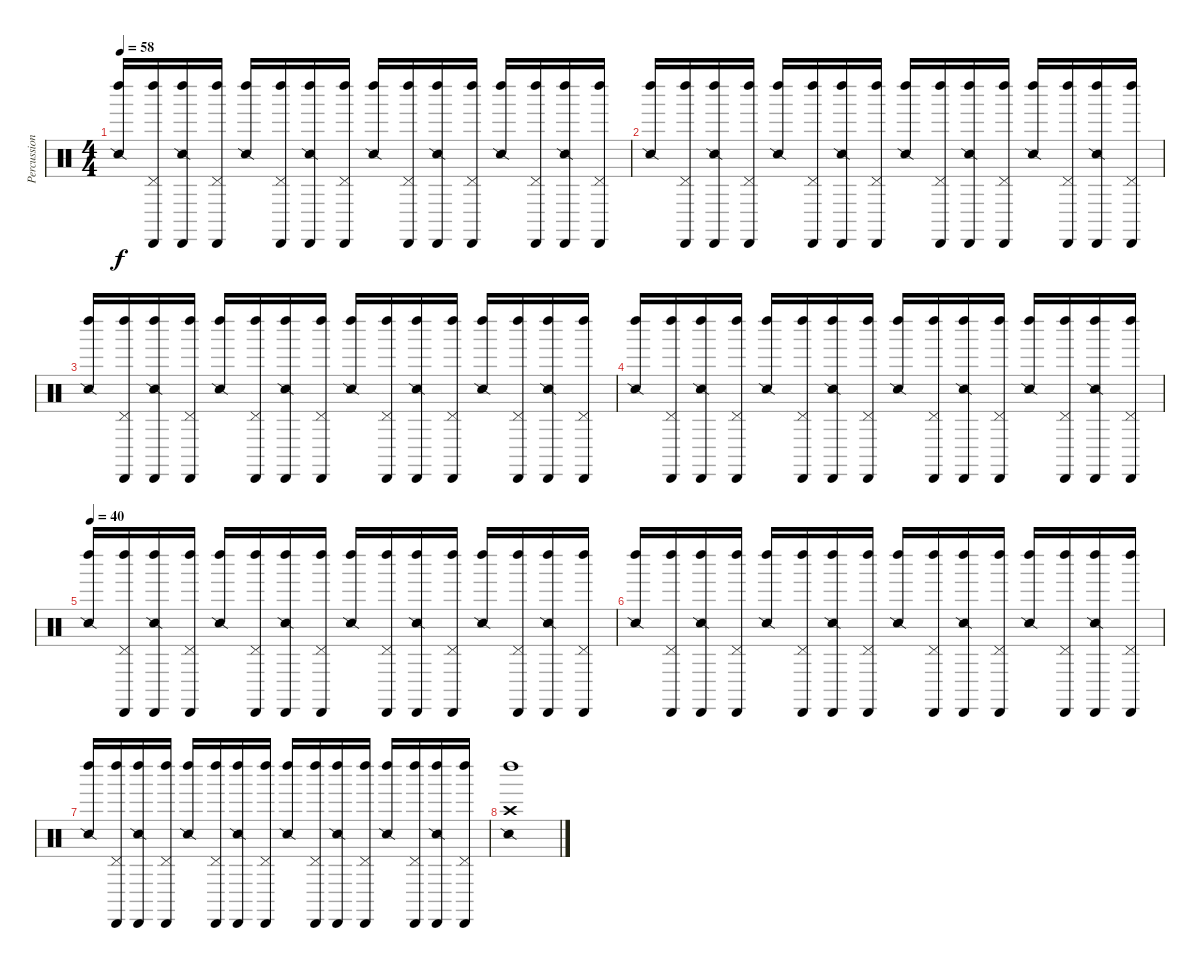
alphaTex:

\track ("Percussions" "Percussion") {instrument percussion}
\staff {score}
\articulation defaults
\ts (4 4)
\tempo 58
\clef neutral
\ks c
("Snare (side stick) 2" "Left Maraca (hit)").16{dy f} ("Cabasa (hit)" "Pedal Hi-Hat (hit)" "Left Maraca (hit)").16 ("Cabasa (hit)" "Snare (side stick) 2" "Left Maraca (hit)").16 ("Cabasa (hit)" "Pedal Hi-Hat (hit)" "Left Maraca (hit)").16 ("Snare (side stick) 2" "Left Maraca (hit)").16 ("Cabasa (hit)" "Pedal Hi-Hat (hit)" "Left Maraca (hit)").16 ("Cabasa (hit)" "Snare (side stick) 2" "Left Maraca (hit)").16 ("Cabasa (hit)" "Pedal Hi-Hat (hit)" "Left Maraca (hit)").16 ("Snare (side stick) 2" "Left Maraca (hit)").16 ("Cabasa (hit)" "Pedal Hi-Hat (hit)" "Left Maraca (hit)").16 ("Cabasa (hit)" "Snare (side stick) 2" "Left Maraca (hit)").16 ("Cabasa (hit)" "Pedal Hi-Hat (hit)" "Left Maraca (hit)").16 ("Snare (side stick) 2" "Left Maraca (hit)").16 ("Cabasa (hit)" "Pedal Hi-Hat (hit)" "Left Maraca (hit)").16 ("Cabasa (hit)" "Snare (side stick) 2" "Left Maraca (hit)").16 ("Cabasa (hit)" "Pedal Hi-Hat (hit)" "Left Maraca (hit)").16 |
("Snare (side stick) 2" "Left Maraca (hit)").16 ("Cabasa (hit)" "Pedal Hi-Hat (hit)" "Left Maraca (hit)").16 ("Cabasa (hit)" "Snare (side stick) 2" "Left Maraca (hit)").16 ("Cabasa (hit)" "Pedal Hi-Hat (hit)" "Left Maraca (hit)").16 ("Snare (side stick) 2" "Left Maraca (hit)").16 ("Cabasa (hit)" "Pedal Hi-Hat (hit)" "Left Maraca (hit)").16 ("Cabasa (hit)" "Snare (side stick) 2" "Left Maraca (hit)").16 ("Cabasa (hit)" "Pedal Hi-Hat (hit)" "Left Maraca (hit)").16 ("Snare (side stick) 2" "Left Maraca (hit)").16 ("Cabasa (hit)" "Pedal Hi-Hat (hit)" "Left Maraca (hit)").16 ("Cabasa (hit)" "Snare (side stick) 2" "Left Maraca (hit)").16 ("Cabasa (hit)" "Pedal Hi-Hat (hit)" "Left Maraca (hit)").16 ("Snare (side stick) 2" "Left Maraca (hit)").16 ("Cabasa (hit)" "Pedal Hi-Hat (hit)" "Left Maraca (hit)").16 ("Cabasa (hit)" "Snare (side stick) 2" "Left Maraca (hit)").16 ("Cabasa (hit)" "Pedal Hi-Hat (hit)" "Left Maraca (hit)").16 |
("Snare (side stick) 2" "Left Maraca (hit)").16 ("Cabasa (hit)" "Pedal Hi-Hat (hit)" "Left Maraca (hit)").16 ("Cabasa (hit)" "Snare (side stick) 2" "Left Maraca (hit)").16 ("Cabasa (hit)" "Pedal Hi-Hat (hit)" "Left Maraca (hit)").16 ("Snare (side stick) 2" "Left Maraca (hit)").16 ("Cabasa (hit)" "Pedal Hi-Hat (hit)" "Left Maraca (hit)").16 ("Cabasa (hit)" "Snare (side stick) 2" "Left Maraca (hit)").16 ("Cabasa (hit)" "Pedal Hi-Hat (hit)" "Left Maraca (hit)").16 ("Snare (side stick) 2" "Left Maraca (hit)").16 ("Cabasa (hit)" "Pedal Hi-Hat (hit)" "Left Maraca (hit)").16 ("Cabasa (hit)" "Snare (side stick) 2" "Left Maraca (hit)").16 ("Cabasa (hit)" "Pedal Hi-Hat (hit)" "Left Maraca (hit)").16 ("Snare (side stick) 2" "Left Maraca (hit)").16 ("Cabasa (hit)" "Pedal Hi-Hat (hit)" "Left Maraca (hit)").16 ("Cabasa (hit)" "Snare (side stick) 2" "Left Maraca (hit)").16 ("Cabasa (hit)" "Pedal Hi-Hat (hit)" "Left Maraca (hit)").16 |
("Snare (side stick) 2" "Left Maraca (hit)").16 ("Cabasa (hit)" "Pedal Hi-Hat (hit)" "Left Maraca (hit)").16 ("Cabasa (hit)" "Snare (side stick) 2" "Left Maraca (hit)").16 ("Cabasa (hit)" "Pedal Hi-Hat (hit)" "Left Maraca (hit)").16 ("Snare (side stick) 2" "Left Maraca (hit)").16 ("Cabasa (hit)" "Pedal Hi-Hat (hit)" "Left Maraca (hit)").16 ("Cabasa (hit)" "Snare (side stick) 2" "Left Maraca (hit)").16 ("Cabasa (hit)" "Pedal Hi-Hat (hit)" "Left Maraca (hit)").16 ("Snare (side stick) 2" "Left Maraca (hit)").16 ("Cabasa (hit)" "Pedal Hi-Hat (hit)" "Left Maraca (hit)").16 ("Cabasa (hit)" "Snare (side stick) 2" "Left Maraca (hit)").16 ("Cabasa (hit)" "Pedal Hi-Hat (hit)" "Left Maraca (hit)").16 ("Snare (side stick) 2" "Left Maraca (hit)").16 ("Cabasa (hit)" "Pedal Hi-Hat (hit)" "Left Maraca (hit)").16 ("Cabasa (hit)" "Snare (side stick) 2" "Left Maraca (hit)").16 ("Cabasa (hit)" "Pedal Hi-Hat (hit)" "Left Maraca (hit)").16 |
\tempo 40
("Snare (side stick) 2" "Left Maraca (hit)").16 ("Cabasa (hit)" "Pedal Hi-Hat (hit)" "Left Maraca (hit)").16 ("Cabasa (hit)" "Snare (side stick) 2" "Left Maraca (hit)").16 ("Cabasa (hit)" "Pedal Hi-Hat (hit)" "Left Maraca (hit)").16 ("Snare (side stick) 2" "Left Maraca (hit)").16 ("Cabasa (hit)" "Pedal Hi-Hat (hit)" "Left Maraca (hit)").16 ("Cabasa (hit)" "Snare (side stick) 2" "Left Maraca (hit)").16 ("Cabasa (hit)" "Pedal Hi-Hat (hit)" "Left Maraca (hit)").16 ("Snare (side stick) 2" "Left Maraca (hit)").16 ("Cabasa (hit)" "Pedal Hi-Hat (hit)" "Left Maraca (hit)").16 ("Cabasa (hit)" "Snare (side stick) 2" "Left Maraca (hit)").16 ("Cabasa (hit)" "Pedal Hi-Hat (hit)" "Left Maraca (hit)").16 ("Snare (side stick) 2" "Left Maraca (hit)").16 ("Cabasa (hit)" "Pedal Hi-Hat (hit)" "Left Maraca (hit)").16 ("Cabasa (hit)" "Snare (side stick) 2" "Left Maraca (hit)").16 ("Cabasa (hit)" "Pedal Hi-Hat (hit)" "Left Maraca (hit)").16 |
("Snare (side stick) 2" "Left Maraca (hit)").16 ("Cabasa (hit)" "Pedal Hi-Hat (hit)" "Left Maraca (hit)").16 ("Cabasa (hit)" "Snare (side stick) 2" "Left Maraca (hit)").16 ("Cabasa (hit)" "Pedal Hi-Hat (hit)" "Left Maraca (hit)").16 ("Snare (side stick) 2" "Left Maraca (hit)").16 ("Cabasa (hit)" "Pedal Hi-Hat (hit)" "Left Maraca (hit)").16 ("Cabasa (hit)" "Snare (side stick) 2" "Left Maraca (hit)").16 ("Cabasa (hit)" "Pedal Hi-Hat (hit)" "Left Maraca (hit)").16 ("Snare (side stick) 2" "Left Maraca (hit)").16 ("Cabasa (hit)" "Pedal Hi-Hat (hit)" "Left Maraca (hit)").16 ("Cabasa (hit)" "Snare (side stick) 2" "Left Maraca (hit)").16 ("Cabasa (hit)" "Pedal Hi-Hat (hit)" "Left Maraca (hit)").16 ("Snare (side stick) 2" "Left Maraca (hit)").16 ("Cabasa (hit)" "Pedal Hi-Hat (hit)" "Left Maraca (hit)").16 ("Cabasa (hit)" "Snare (side stick) 2" "Left Maraca (hit)").16 ("Cabasa (hit)" "Pedal Hi-Hat (hit)" "Left Maraca (hit)").16 |
("Snare (side stick) 2" "Left Maraca (hit)").16 ("Cabasa (hit)" "Pedal Hi-Hat (hit)" "Left Maraca (hit)").16 ("Cabasa (hit)" "Snare (side stick) 2" "Left Maraca (hit)").16 ("Cabasa (hit)" "Pedal Hi-Hat (hit)" "Left Maraca (hit)").16 ("Snare (side stick) 2" "Left Maraca (hit)").16 ("Cabasa (hit)" "Pedal Hi-Hat (hit)" "Left Maraca (hit)").16 ("Cabasa (hit)" "Snare (side stick) 2" "Left Maraca (hit)").16 ("Cabasa (hit)" "Pedal Hi-Hat (hit)" "Left Maraca (hit)").16 ("Snare (side stick) 2" "Left Maraca (hit)").16 ("Cabasa (hit)" "Pedal Hi-Hat (hit)" "Left Maraca (hit)").16 ("Cabasa (hit)" "Snare (side stick) 2" "Left Maraca (hit)").16 ("Cabasa (hit)" "Pedal Hi-Hat (hit)" "Left Maraca (hit)").16 ("Snare (side stick) 2" "Left Maraca (hit)").16 ("Cabasa (hit)" "Pedal Hi-Hat (hit)" "Left Maraca (hit)").16 ("Cabasa (hit)" "Snare (side stick) 2" "Left Maraca (hit)").16 ("Cabasa (hit)" "Pedal Hi-Hat (hit)" "Left Maraca (hit)").16 |
("Snare (side stick) 2" "Crash high (hit)" "Left Maraca (hit)").1
